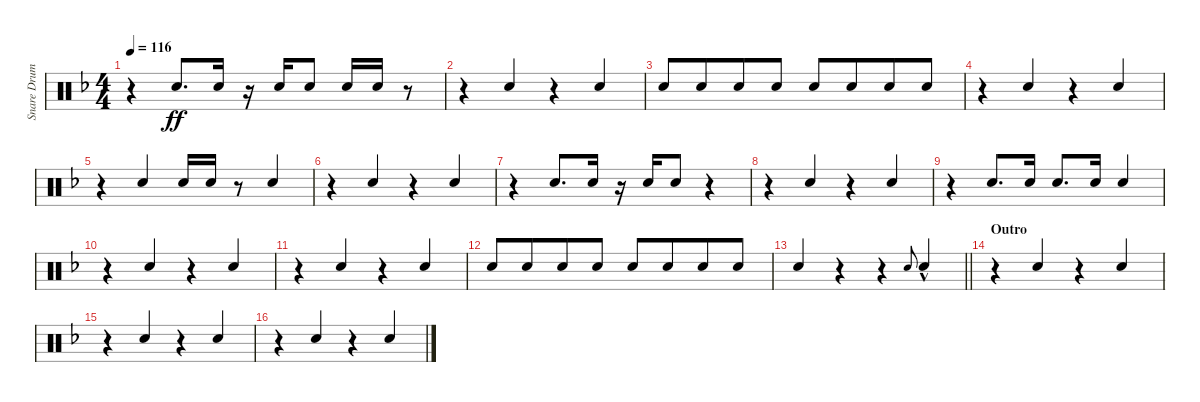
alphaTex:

\track ("Snare Drum" "Snare Drum") {instrument percussion}
\staff {score}
\articulation defaults
\ts (4 4)
\tempo 116
\clef neutral
\ks f
r.4{dy ff} "Electric Snare (hit)".8{d beam Up} "Electric Snare (hit)".16{beam Up} r.16 "Electric Snare (hit)".16{beam Up} "Electric Snare (hit)".8{beam Up} "Electric Snare (hit)".16{beam Up} "Electric Snare (hit)".16{beam Up} r.8 |
r.4{beam merge} "Electric Snare (hit)".4{beam Up} r.4{beam merge} "Electric Snare (hit)".4{beam Up} |
"Electric Snare (hit)".8{beam Up} "Electric Snare (hit)".8{beam Up beam merge} "Electric Snare (hit)".8{beam Up} "Electric Snare (hit)".8{beam Up} "Electric Snare (hit)".8{beam Up} "Electric Snare (hit)".8{beam Up beam merge} "Electric Snare (hit)".8{beam Up} "Electric Snare (hit)".8{beam Up} |
r.4{beam merge} "Electric Snare (hit)".4{beam Up} r.4{beam merge} "Electric Snare (hit)".4{beam Up} |
r.4{beam merge} "Electric Snare (hit)".4{beam Up} "Electric Snare (hit)".16{beam Up} "Electric Snare (hit)".16{beam Up} r.8 "Electric Snare (hit)".4{beam Up} |
r.4{beam merge} "Electric Snare (hit)".4{beam Up} r.4{beam merge} "Electric Snare (hit)".4{beam Up} |
r.4 "Electric Snare (hit)".8{d beam Up} "Electric Snare (hit)".16{beam Up} r.16 "Electric Snare (hit)".16{beam Up beam merge} "Electric Snare (hit)".8{beam Up} r.4 |
r.4{beam merge} "Electric Snare (hit)".4{beam Up} r.4{beam merge} "Electric Snare (hit)".4{beam Up} |
r.4 "Electric Snare (hit)".8{d beam Up} "Electric Snare (hit)".16{beam Up} "Electric Snare (hit)".8{d beam Up} "Electric Snare (hit)".16{beam Up} "Electric Snare (hit)".4{beam Up} |
r.4{beam merge} "Electric Snare (hit)".4{beam Up} r.4{beam merge} "Electric Snare (hit)".4{beam Up} |
r.4{beam merge} "Electric Snare (hit)".4{beam Up} r.4{beam merge} "Electric Snare (hit)".4{beam Up} |
"Electric Snare (hit)".8{beam Up} "Electric Snare (hit)".8{beam Up beam merge} "Electric Snare (hit)".8{beam Up} "Electric Snare (hit)".8{beam Up} "Electric Snare (hit)".8{beam Up} "Electric Snare (hit)".8{beam Up beam merge} "Electric Snare (hit)".8{beam Up} "Electric Snare (hit)".8{beam Up} |
\barLineRight lightlight "Electric Snare (hit)".4{beam Up}
r.4 r.4 "Electric Snare (hit)".8{gr onbeat} "Electric Snare (hit)"{hac}.4{volume 16 beam Up} |
\section ("" "Outro")
r.4{volume 13 beam merge} "Electric Snare (hit)".4{beam Up} r.4{beam merge} "Electric Snare (hit)".4{beam Up} |
r.4{beam merge} "Electric Snare (hit)".4{beam Up} r.4{beam merge} "Electric Snare (hit)".4{beam Up} |
r.4{beam merge} "Electric Snare (hit)".4{beam Up} r.4{beam merge} "Electric Snare (hit)".4{beam Up}
